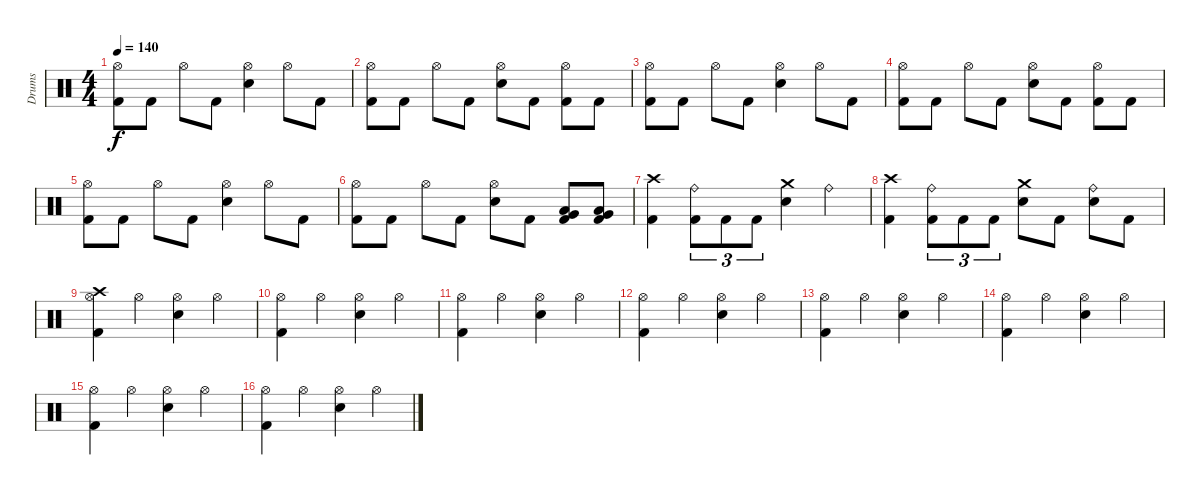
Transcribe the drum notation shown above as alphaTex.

\track ("Drums" "Drums") {instrument percussion}
\staff {score}
\articulation defaults
\ts (4 4)
\tempo 140
\clef neutral
\ks c
("Hi-Hat (open)" "Kick (hit) 2").8{dy f} "Kick (hit) 2".8 "Hi-Hat (open)".8 "Kick (hit) 2".8 ("Hi-Hat (open)" "Snare (hit) 2").4 "Hi-Hat (open)".8 "Kick (hit) 2".8 |
("Hi-Hat (open)" "Kick (hit) 2").8 "Kick (hit) 2".8 "Hi-Hat (open)".8 "Kick (hit) 2".8 ("Hi-Hat (open)" "Snare (hit) 2").8 "Kick (hit) 2".8 ("Hi-Hat (open)" "Kick (hit) 2").8 "Kick (hit) 2".8 |
("Hi-Hat (open)" "Kick (hit) 2").8 "Kick (hit) 2".8 "Hi-Hat (open)".8 "Kick (hit) 2".8 ("Hi-Hat (open)" "Snare (hit) 2").4 "Hi-Hat (open)".8 "Kick (hit) 2".8 |
("Hi-Hat (open)" "Kick (hit) 2").8 "Kick (hit) 2".8 "Hi-Hat (open)".8 "Kick (hit) 2".8 ("Hi-Hat (open)" "Snare (hit) 2").8 "Kick (hit) 2".8 ("Hi-Hat (open)" "Kick (hit) 2").8 "Kick (hit) 2".8 |
("Hi-Hat (open)" "Kick (hit) 2").8 "Kick (hit) 2".8 "Hi-Hat (open)".8 "Kick (hit) 2".8 ("Hi-Hat (open)" "Snare (hit) 2").4 "Hi-Hat (open)".8 "Kick (hit) 2".8 |
("Hi-Hat (open)" "Kick (hit) 2").8 "Kick (hit) 2".8 "Hi-Hat (open)".8 "Kick (hit) 2".8 ("Hi-Hat (open)" "Snare (hit) 2").8 "Kick (hit) 2".8 ("Low Tom (hit)" "Very Low Tom (hit)" "Kick (hit) 2").8 ("Very Low Tom (hit)" "Low Floor Tom (hit)" "Kick (hit) 2").8 |
("Crash high (hit)" "Kick (hit) 2").4 ("Ride (bell)" "Kick (hit) 2").8{tu (3 2)} "Kick (hit) 2".8{tu (3 2)} "Kick (hit) 2".8{tu (3 2)} ("Crash medium (hit)" "Snare (hit) 2").4 "Ride (bell)".4 |
("Crash high (hit)" "Kick (hit) 2").4 ("Ride (bell)" "Kick (hit) 2").8{tu (3 2)} "Kick (hit) 2".8{tu (3 2)} "Kick (hit) 2".8{tu (3 2)} ("Crash medium (hit)" "Snare (hit) 2").8 "Kick (hit) 2".8 ("Ride (bell)" "Snare (hit) 2").8 "Kick (hit) 2".8 |
("Crash high (hit)" "Hi-Hat (open)" "Kick (hit) 2").4 "Hi-Hat (open)".4 ("Hi-Hat (open)" "Snare (hit) 2").4 "Hi-Hat (open)".4 |
("Hi-Hat (open)" "Kick (hit) 2").4 "Hi-Hat (open)".4 ("Hi-Hat (open)" "Snare (hit) 2").4 "Hi-Hat (open)".4 |
("Hi-Hat (open)" "Kick (hit) 2").4 "Hi-Hat (open)".4 ("Hi-Hat (open)" "Snare (hit) 2").4 "Hi-Hat (open)".4 |
("Hi-Hat (open)" "Kick (hit) 2").4 "Hi-Hat (open)".4 ("Hi-Hat (open)" "Snare (hit) 2").4 "Hi-Hat (open)".4 |
("Hi-Hat (open)" "Kick (hit) 2").4 "Hi-Hat (open)".4 ("Hi-Hat (open)" "Snare (hit) 2").4 "Hi-Hat (open)".4 |
("Hi-Hat (open)" "Kick (hit) 2").4 "Hi-Hat (open)".4 ("Hi-Hat (open)" "Snare (hit) 2").4 "Hi-Hat (open)".4 |
("Hi-Hat (open)" "Kick (hit) 2").4 "Hi-Hat (open)".4 ("Hi-Hat (open)" "Snare (hit) 2").4 "Hi-Hat (open)".4 |
("Hi-Hat (open)" "Kick (hit) 2").4 "Hi-Hat (open)".4 ("Hi-Hat (open)" "Snare (hit) 2").4 "Hi-Hat (open)".4
